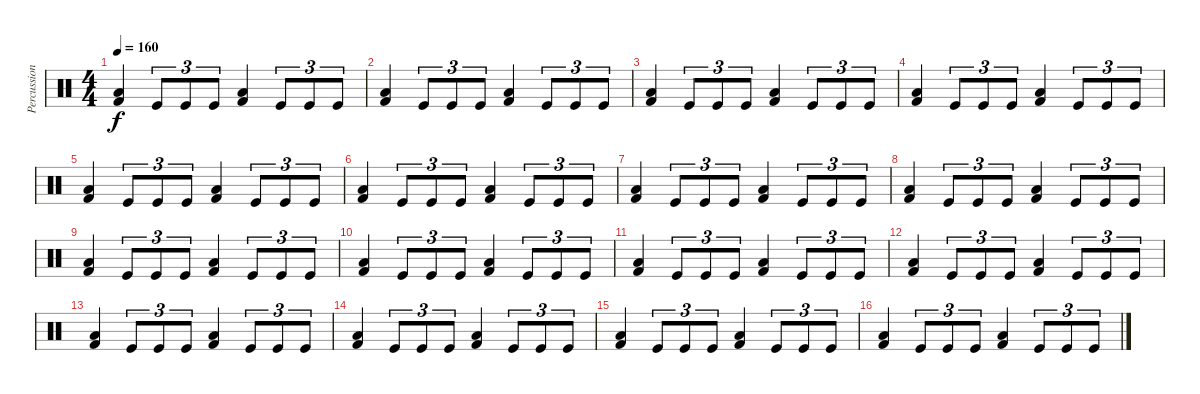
\track ("Percussions" "Percussion") {instrument percussion}
\staff {score}
\articulation defaults
\ts (4 4)
\tempo 160
\clef neutral
\ks c
("Kick (hit) 2" "Low Floor Tom (hit)").4{dy f} "Kick (hit)".8{tu (3 2)} "Kick (hit)".8{tu (3 2)} "Kick (hit)".8{tu (3 2)} ("Kick (hit) 2" "Low Floor Tom (hit)").4 "Kick (hit)".8{tu (3 2)} "Kick (hit)".8{tu (3 2)} "Kick (hit)".8{tu (3 2)} |
("Kick (hit) 2" "Low Floor Tom (hit)").4 "Kick (hit)".8{tu (3 2)} "Kick (hit)".8{tu (3 2)} "Kick (hit)".8{tu (3 2)} ("Kick (hit) 2" "Low Floor Tom (hit)").4 "Kick (hit)".8{tu (3 2)} "Kick (hit)".8{tu (3 2)} "Kick (hit)".8{tu (3 2)} |
("Kick (hit) 2" "Low Floor Tom (hit)").4 "Kick (hit)".8{tu (3 2)} "Kick (hit)".8{tu (3 2)} "Kick (hit)".8{tu (3 2)} ("Kick (hit) 2" "Low Floor Tom (hit)").4 "Kick (hit)".8{tu (3 2)} "Kick (hit)".8{tu (3 2)} "Kick (hit)".8{tu (3 2)} |
("Kick (hit) 2" "Low Floor Tom (hit)").4 "Kick (hit)".8{tu (3 2)} "Kick (hit)".8{tu (3 2)} "Kick (hit)".8{tu (3 2)} ("Kick (hit) 2" "Low Floor Tom (hit)").4 "Kick (hit)".8{tu (3 2)} "Kick (hit)".8{tu (3 2)} "Kick (hit)".8{tu (3 2)} |
("Kick (hit) 2" "Low Floor Tom (hit)").4 "Kick (hit)".8{tu (3 2)} "Kick (hit)".8{tu (3 2)} "Kick (hit)".8{tu (3 2)} ("Kick (hit) 2" "Low Floor Tom (hit)").4 "Kick (hit)".8{tu (3 2)} "Kick (hit)".8{tu (3 2)} "Kick (hit)".8{tu (3 2)} |
("Kick (hit) 2" "Low Floor Tom (hit)").4 "Kick (hit)".8{tu (3 2)} "Kick (hit)".8{tu (3 2)} "Kick (hit)".8{tu (3 2)} ("Kick (hit) 2" "Low Floor Tom (hit)").4 "Kick (hit)".8{tu (3 2)} "Kick (hit)".8{tu (3 2)} "Kick (hit)".8{tu (3 2)} |
("Kick (hit) 2" "Low Floor Tom (hit)").4 "Kick (hit)".8{tu (3 2)} "Kick (hit)".8{tu (3 2)} "Kick (hit)".8{tu (3 2)} ("Kick (hit) 2" "Low Floor Tom (hit)").4 "Kick (hit)".8{tu (3 2)} "Kick (hit)".8{tu (3 2)} "Kick (hit)".8{tu (3 2)} |
("Kick (hit) 2" "Low Floor Tom (hit)").4 "Kick (hit)".8{tu (3 2)} "Kick (hit)".8{tu (3 2)} "Kick (hit)".8{tu (3 2)} ("Kick (hit) 2" "Low Floor Tom (hit)").4 "Kick (hit)".8{tu (3 2)} "Kick (hit)".8{tu (3 2)} "Kick (hit)".8{tu (3 2)} |
("Kick (hit) 2" "Low Floor Tom (hit)").4 "Kick (hit)".8{tu (3 2)} "Kick (hit)".8{tu (3 2)} "Kick (hit)".8{tu (3 2)} ("Kick (hit) 2" "Low Floor Tom (hit)").4 "Kick (hit)".8{tu (3 2)} "Kick (hit)".8{tu (3 2)} "Kick (hit)".8{tu (3 2)} |
("Kick (hit) 2" "Low Floor Tom (hit)").4 "Kick (hit)".8{tu (3 2)} "Kick (hit)".8{tu (3 2)} "Kick (hit)".8{tu (3 2)} ("Kick (hit) 2" "Low Floor Tom (hit)").4 "Kick (hit)".8{tu (3 2)} "Kick (hit)".8{tu (3 2)} "Kick (hit)".8{tu (3 2)} |
("Kick (hit) 2" "Low Floor Tom (hit)").4 "Kick (hit)".8{tu (3 2)} "Kick (hit)".8{tu (3 2)} "Kick (hit)".8{tu (3 2)} ("Kick (hit) 2" "Low Floor Tom (hit)").4 "Kick (hit)".8{tu (3 2)} "Kick (hit)".8{tu (3 2)} "Kick (hit)".8{tu (3 2)} |
("Kick (hit) 2" "Low Floor Tom (hit)").4 "Kick (hit)".8{tu (3 2)} "Kick (hit)".8{tu (3 2)} "Kick (hit)".8{tu (3 2)} ("Kick (hit) 2" "Low Floor Tom (hit)").4 "Kick (hit)".8{tu (3 2)} "Kick (hit)".8{tu (3 2)} "Kick (hit)".8{tu (3 2)} |
("Kick (hit) 2" "Low Floor Tom (hit)").4 "Kick (hit)".8{tu (3 2)} "Kick (hit)".8{tu (3 2)} "Kick (hit)".8{tu (3 2)} ("Kick (hit) 2" "Low Floor Tom (hit)").4 "Kick (hit)".8{tu (3 2)} "Kick (hit)".8{tu (3 2)} "Kick (hit)".8{tu (3 2)} |
("Kick (hit) 2" "Low Floor Tom (hit)").4 "Kick (hit)".8{tu (3 2)} "Kick (hit)".8{tu (3 2)} "Kick (hit)".8{tu (3 2)} ("Kick (hit) 2" "Low Floor Tom (hit)").4 "Kick (hit)".8{tu (3 2)} "Kick (hit)".8{tu (3 2)} "Kick (hit)".8{tu (3 2)} |
("Kick (hit) 2" "Low Floor Tom (hit)").4 "Kick (hit)".8{tu (3 2)} "Kick (hit)".8{tu (3 2)} "Kick (hit)".8{tu (3 2)} ("Kick (hit) 2" "Low Floor Tom (hit)").4 "Kick (hit)".8{tu (3 2)} "Kick (hit)".8{tu (3 2)} "Kick (hit)".8{tu (3 2)} |
("Kick (hit) 2" "Low Floor Tom (hit)").4 "Kick (hit)".8{tu (3 2)} "Kick (hit)".8{tu (3 2)} "Kick (hit)".8{tu (3 2)} ("Kick (hit) 2" "Low Floor Tom (hit)").4 "Kick (hit)".8{tu (3 2)} "Kick (hit)".8{tu (3 2)} "Kick (hit)".8{tu (3 2)}
